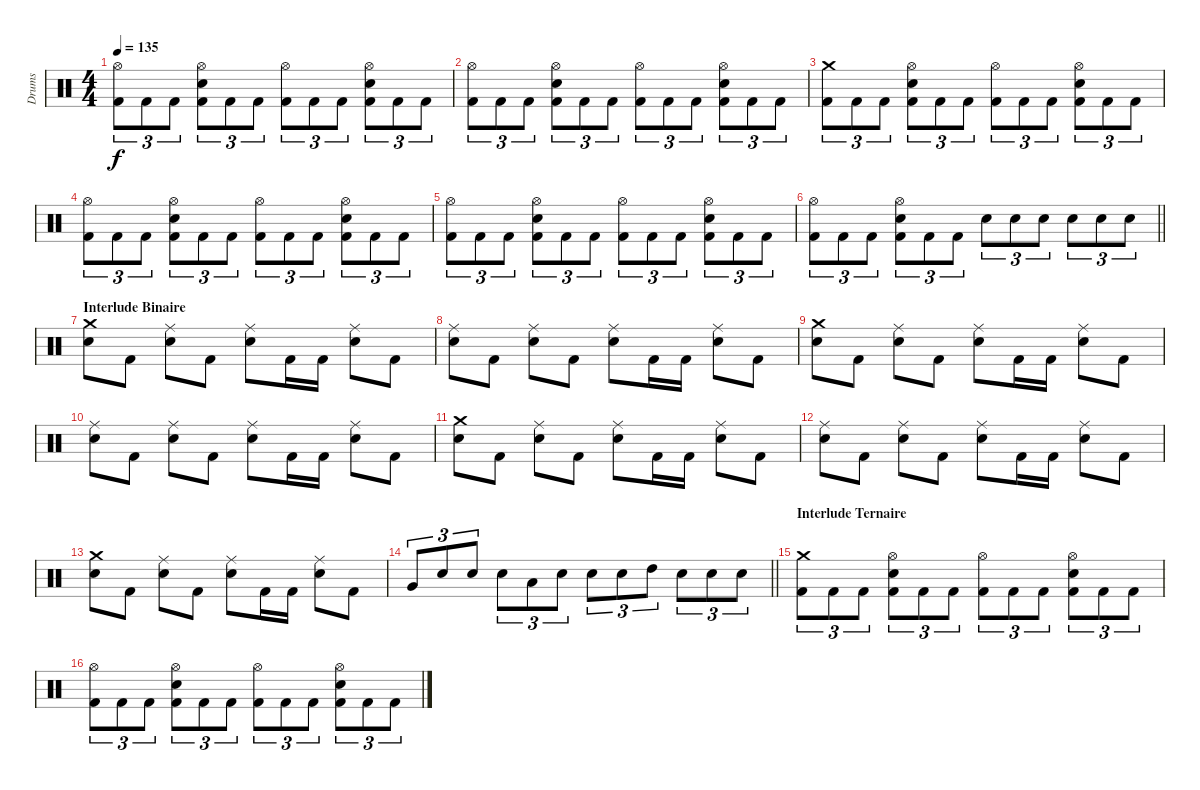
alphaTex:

\track ("Drums" "Drums") {instrument percussion}
\staff {score}
\articulation defaults
\ts (4 4)
\tempo 135
\clef neutral
\ks c
("Hi-Hat (open)" "Kick (hit) 2").8{tu (3 2) dy f} "Kick (hit) 2".8{tu (3 2)} "Kick (hit) 2".8{tu (3 2)} ("Hi-Hat (open)" "Snare (hit) 2" "Kick (hit) 2").8{tu (3 2)} "Kick (hit) 2".8{tu (3 2)} "Kick (hit) 2".8{tu (3 2)} ("Hi-Hat (open)" "Kick (hit) 2").8{tu (3 2)} "Kick (hit) 2".8{tu (3 2)} "Kick (hit) 2".8{tu (3 2)} ("Hi-Hat (open)" "Snare (hit) 2" "Kick (hit) 2").8{tu (3 2)} "Kick (hit) 2".8{tu (3 2)} "Kick (hit) 2".8{tu (3 2)} |
("Hi-Hat (open)" "Kick (hit) 2").8{tu (3 2)} "Kick (hit) 2".8{tu (3 2)} "Kick (hit) 2".8{tu (3 2)} ("Hi-Hat (open)" "Snare (hit) 2" "Kick (hit) 2").8{tu (3 2)} "Kick (hit) 2".8{tu (3 2)} "Kick (hit) 2".8{tu (3 2)} ("Hi-Hat (open)" "Kick (hit) 2").8{tu (3 2)} "Kick (hit) 2".8{tu (3 2)} "Kick (hit) 2".8{tu (3 2)} ("Hi-Hat (open)" "Snare (hit) 2" "Kick (hit) 2").8{tu (3 2)} "Kick (hit) 2".8{tu (3 2)} "Kick (hit) 2".8{tu (3 2)} |
("Crash medium (hit)" "Kick (hit) 2").8{tu (3 2)} "Kick (hit) 2".8{tu (3 2)} "Kick (hit) 2".8{tu (3 2)} ("Hi-Hat (open)" "Snare (hit) 2" "Kick (hit) 2").8{tu (3 2)} "Kick (hit) 2".8{tu (3 2)} "Kick (hit) 2".8{tu (3 2)} ("Hi-Hat (open)" "Kick (hit) 2").8{tu (3 2)} "Kick (hit) 2".8{tu (3 2)} "Kick (hit) 2".8{tu (3 2)} ("Hi-Hat (open)" "Snare (hit) 2" "Kick (hit) 2").8{tu (3 2)} "Kick (hit) 2".8{tu (3 2)} "Kick (hit) 2".8{tu (3 2)} |
("Hi-Hat (open)" "Kick (hit) 2").8{tu (3 2)} "Kick (hit) 2".8{tu (3 2)} "Kick (hit) 2".8{tu (3 2)} ("Hi-Hat (open)" "Snare (hit) 2" "Kick (hit) 2").8{tu (3 2)} "Kick (hit) 2".8{tu (3 2)} "Kick (hit) 2".8{tu (3 2)} ("Hi-Hat (open)" "Kick (hit) 2").8{tu (3 2)} "Kick (hit) 2".8{tu (3 2)} "Kick (hit) 2".8{tu (3 2)} ("Hi-Hat (open)" "Snare (hit) 2" "Kick (hit) 2").8{tu (3 2)} "Kick (hit) 2".8{tu (3 2)} "Kick (hit) 2".8{tu (3 2)} |
("Hi-Hat (open)" "Kick (hit) 2").8{tu (3 2)} "Kick (hit) 2".8{tu (3 2)} "Kick (hit) 2".8{tu (3 2)} ("Hi-Hat (open)" "Snare (hit) 2" "Kick (hit) 2").8{tu (3 2)} "Kick (hit) 2".8{tu (3 2)} "Kick (hit) 2".8{tu (3 2)} ("Hi-Hat (open)" "Kick (hit) 2").8{tu (3 2)} "Kick (hit) 2".8{tu (3 2)} "Kick (hit) 2".8{tu (3 2)} ("Hi-Hat (open)" "Snare (hit) 2" "Kick (hit) 2").8{tu (3 2)} "Kick (hit) 2".8{tu (3 2)} "Kick (hit) 2".8{tu (3 2)} |
\barLineRight lightlight
("Hi-Hat (open)" "Kick (hit) 2").8{tu (3 2)} "Kick (hit) 2".8{tu (3 2)} "Kick (hit) 2".8{tu (3 2)} ("Hi-Hat (open)" "Snare (hit) 2" "Kick (hit) 2").8{tu (3 2)} "Kick (hit) 2".8{tu (3 2)} "Kick (hit) 2".8{tu (3 2)} "Snare (hit) 2".8{tu (3 2)} "Snare (hit) 2".8{tu (3 2)} "Snare (hit) 2".8{tu (3 2)} "Snare (hit) 2".8{tu (3 2)} "Snare (hit) 2".8{tu (3 2)} "Snare (hit) 2".8{tu (3 2)} |
\section ("" "Interlude Binaire")
("Crash medium (hit)" "Snare (hit) 2").8 "Kick (hit) 2".8 ("Ride (middle)" "Snare (hit) 2").8 "Kick (hit) 2".8 ("Ride (middle)" "Snare (hit) 2").8 "Kick (hit) 2".16 "Kick (hit) 2".16 ("Ride (middle)" "Snare (hit) 2").8 "Kick (hit) 2".8 |
("Ride (middle)" "Snare (hit) 2").8 "Kick (hit) 2".8 ("Ride (middle)" "Snare (hit) 2").8 "Kick (hit) 2".8 ("Ride (middle)" "Snare (hit) 2").8 "Kick (hit) 2".16 "Kick (hit) 2".16 ("Ride (middle)" "Snare (hit) 2").8 "Kick (hit) 2".8 |
("Crash medium (hit)" "Snare (hit) 2").8 "Kick (hit) 2".8 ("Ride (middle)" "Snare (hit) 2").8 "Kick (hit) 2".8 ("Ride (middle)" "Snare (hit) 2").8 "Kick (hit) 2".16 "Kick (hit) 2".16 ("Ride (middle)" "Snare (hit) 2").8 "Kick (hit) 2".8 |
("Ride (middle)" "Snare (hit) 2").8 "Kick (hit) 2".8 ("Ride (middle)" "Snare (hit) 2").8 "Kick (hit) 2".8 ("Ride (middle)" "Snare (hit) 2").8 "Kick (hit) 2".16 "Kick (hit) 2".16 ("Ride (middle)" "Snare (hit) 2").8 "Kick (hit) 2".8 |
("Crash medium (hit)" "Snare (hit) 2").8 "Kick (hit) 2".8 ("Ride (middle)" "Snare (hit) 2").8 "Kick (hit) 2".8 ("Ride (middle)" "Snare (hit) 2").8 "Kick (hit) 2".16 "Kick (hit) 2".16 ("Ride (middle)" "Snare (hit) 2").8 "Kick (hit) 2".8 |
("Ride (middle)" "Snare (hit) 2").8 "Kick (hit) 2".8 ("Ride (middle)" "Snare (hit) 2").8 "Kick (hit) 2".8 ("Ride (middle)" "Snare (hit) 2").8 "Kick (hit) 2".16 "Kick (hit) 2".16 ("Ride (middle)" "Snare (hit) 2").8 "Kick (hit) 2".8 |
("Crash medium (hit)" "Snare (hit) 2").8 "Kick (hit) 2".8 ("Ride (middle)" "Snare (hit) 2").8 "Kick (hit) 2".8 ("Ride (middle)" "Snare (hit) 2").8 "Kick (hit) 2".16 "Kick (hit) 2".16 ("Ride (middle)" "Snare (hit) 2").8 "Kick (hit) 2".8 |
\barLineRight lightlight "Very Low Tom (hit)".8{tu (3 2)} "Snare (hit) 2".8{tu (3 2)} "Snare (hit) 2".8{tu (3 2)} "Snare (hit) 2".8{tu (3 2)} "Low Floor Tom (hit)".8{tu (3 2)} "Snare (hit) 2".8{tu (3 2)} "Snare (hit) 2".8{tu (3 2)} "Snare (hit) 2".8{tu (3 2)} "High Tom (hit)".8{tu (3 2)} "Snare (hit) 2".8{tu (3 2)} "Snare (hit) 2".8{tu (3 2)} "Snare (hit) 2".8{tu (3 2)}
|
\section ("" "Interlude Ternaire")
("Crash medium (hit)" "Kick (hit) 2").8{tu (3 2)} "Kick (hit) 2".8{tu (3 2)} "Kick (hit) 2".8{tu (3 2)} ("Hi-Hat (open)" "Snare (hit) 2" "Kick (hit) 2").8{tu (3 2)} "Kick (hit) 2".8{tu (3 2)} "Kick (hit) 2".8{tu (3 2)} ("Hi-Hat (open)" "Kick (hit) 2").8{tu (3 2)} "Kick (hit) 2".8{tu (3 2)} "Kick (hit) 2".8{tu (3 2)} ("Hi-Hat (open)" "Snare (hit) 2" "Kick (hit) 2").8{tu (3 2)} "Kick (hit) 2".8{tu (3 2)} "Kick (hit) 2".8{tu (3 2)} |
("Hi-Hat (open)" "Kick (hit) 2").8{tu (3 2)} "Kick (hit) 2".8{tu (3 2)} "Kick (hit) 2".8{tu (3 2)} ("Hi-Hat (open)" "Snare (hit) 2" "Kick (hit) 2").8{tu (3 2)} "Kick (hit) 2".8{tu (3 2)} "Kick (hit) 2".8{tu (3 2)} ("Hi-Hat (open)" "Kick (hit) 2").8{tu (3 2)} "Kick (hit) 2".8{tu (3 2)} "Kick (hit) 2".8{tu (3 2)} ("Hi-Hat (open)" "Snare (hit) 2" "Kick (hit) 2").8{tu (3 2)} "Kick (hit) 2".8{tu (3 2)} "Kick (hit) 2".8{tu (3 2)}
